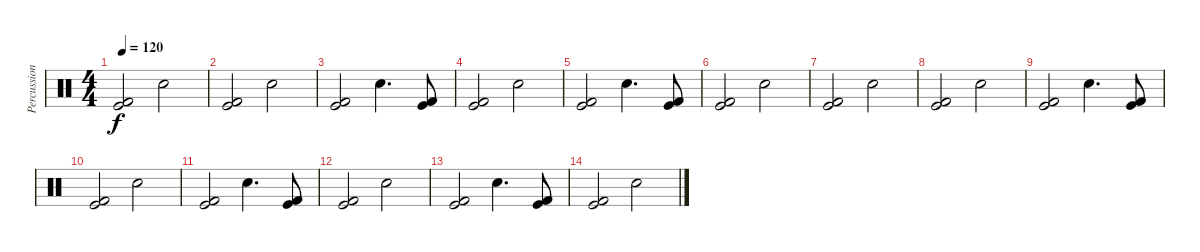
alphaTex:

\track ("Percussion" "Percussion") {instrument percussion}
\staff {score}
\articulation defaults
\ts (4 4)
\tempo 120
\clef neutral
\ks c
("Kick (hit) 2" "Kick (hit)").2{dy f} "Electric Snare (hit)".2 |
("Kick (hit) 2" "Kick (hit)").2 "Electric Snare (hit)".2 |
("Kick (hit) 2" "Kick (hit)").2 "Electric Snare (hit)".4{d} ("Kick (hit) 2" "Kick (hit)").8 |
("Kick (hit) 2" "Kick (hit)").2 "Electric Snare (hit)".2 |
("Kick (hit) 2" "Kick (hit)").2 "Electric Snare (hit)".4{d} ("Kick (hit) 2" "Kick (hit)").8 |
("Kick (hit) 2" "Kick (hit)").2 "Electric Snare (hit)".2 |
("Kick (hit) 2" "Kick (hit)").2 "Electric Snare (hit)".2 |
("Kick (hit) 2" "Kick (hit)").2 "Electric Snare (hit)".2 |
("Kick (hit) 2" "Kick (hit)").2 "Electric Snare (hit)".4{d} ("Kick (hit) 2" "Kick (hit)").8 |
("Kick (hit) 2" "Kick (hit)").2 "Electric Snare (hit)".2 |
("Kick (hit) 2" "Kick (hit)").2 "Electric Snare (hit)".4{d} ("Kick (hit) 2" "Kick (hit)").8 |
("Kick (hit) 2" "Kick (hit)").2 "Electric Snare (hit)".2 |
("Kick (hit) 2" "Kick (hit)").2 "Electric Snare (hit)".4{d} ("Kick (hit) 2" "Kick (hit)").8 |
("Kick (hit) 2" "Kick (hit)").2 "Electric Snare (hit)".2
